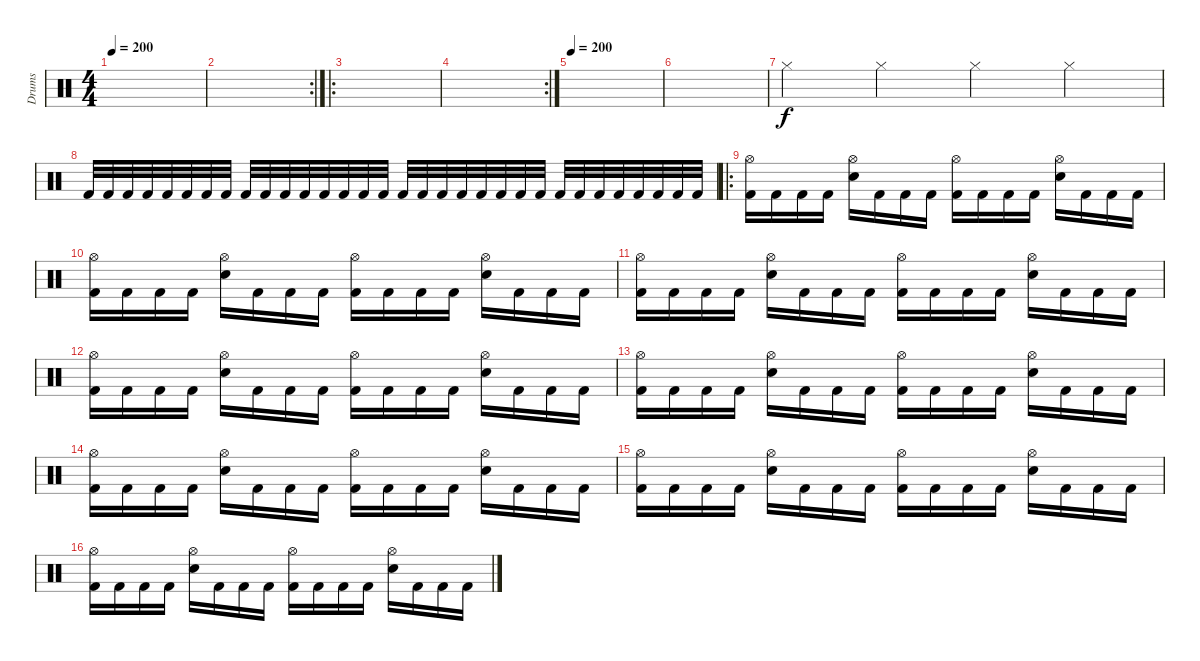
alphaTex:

\track ("Drums" "Drums") {instrument percussion}
\staff {score}
\articulation defaults
\ts (4 4)
\tempo 200
\tempo 190
\tempo 200
\clef neutral
\ks c
|
\rc 2
|
\ro
|
\rc 2
|
\tempo 200
|
|
"Hi-Hat (closed)".4 "Hi-Hat (closed)".4 "Hi-Hat (closed)".4 "Hi-Hat (closed)".4 |
"Kick (hit) 2".32 "Kick (hit) 2".32 "Kick (hit) 2".32 "Kick (hit) 2".32 "Kick (hit) 2".32 "Kick (hit) 2".32 "Kick (hit) 2".32 "Kick (hit) 2".32 "Kick (hit) 2".32 "Kick (hit) 2".32 "Kick (hit) 2".32 "Kick (hit) 2".32 "Kick (hit) 2".32 "Kick (hit) 2".32 "Kick (hit) 2".32 "Kick (hit) 2".32 "Kick (hit) 2".32 "Kick (hit) 2".32 "Kick (hit) 2".32 "Kick (hit) 2".32 "Kick (hit) 2".32 "Kick (hit) 2".32 "Kick (hit) 2".32 "Kick (hit) 2".32 "Kick (hit) 2".32 "Kick (hit) 2".32 "Kick (hit) 2".32 "Kick (hit) 2".32 "Kick (hit) 2".32 "Kick (hit) 2".32 "Kick (hit) 2".32 "Kick (hit) 2".32 |
\ro
("Hi-Hat (open)" "Kick (hit) 2").16 "Kick (hit) 2".16 "Kick (hit) 2".16 "Kick (hit) 2".16 ("Hi-Hat (open)" "Snare (hit) 2").16 "Kick (hit) 2".16 "Kick (hit) 2".16 "Kick (hit) 2".16 ("Hi-Hat (open)" "Kick (hit) 2").16 "Kick (hit) 2".16 "Kick (hit) 2".16 "Kick (hit) 2".16 ("Hi-Hat (open)" "Snare (hit) 2").16 "Kick (hit) 2".16 "Kick (hit) 2".16 "Kick (hit) 2".16 |
("Hi-Hat (open)" "Kick (hit) 2").16 "Kick (hit) 2".16 "Kick (hit) 2".16 "Kick (hit) 2".16 ("Hi-Hat (open)" "Snare (hit) 2").16 "Kick (hit) 2".16 "Kick (hit) 2".16 "Kick (hit) 2".16 ("Hi-Hat (open)" "Kick (hit) 2").16 "Kick (hit) 2".16 "Kick (hit) 2".16 "Kick (hit) 2".16 ("Hi-Hat (open)" "Snare (hit) 2").16 "Kick (hit) 2".16 "Kick (hit) 2".16 "Kick (hit) 2".16 |
("Hi-Hat (open)" "Kick (hit) 2").16 "Kick (hit) 2".16 "Kick (hit) 2".16 "Kick (hit) 2".16 ("Hi-Hat (open)" "Snare (hit) 2").16 "Kick (hit) 2".16 "Kick (hit) 2".16 "Kick (hit) 2".16 ("Hi-Hat (open)" "Kick (hit) 2").16 "Kick (hit) 2".16 "Kick (hit) 2".16 "Kick (hit) 2".16 ("Hi-Hat (open)" "Snare (hit) 2").16 "Kick (hit) 2".16 "Kick (hit) 2".16 "Kick (hit) 2".16 |
("Hi-Hat (open)" "Kick (hit) 2").16 "Kick (hit) 2".16 "Kick (hit) 2".16 "Kick (hit) 2".16 ("Hi-Hat (open)" "Snare (hit) 2").16 "Kick (hit) 2".16 "Kick (hit) 2".16 "Kick (hit) 2".16 ("Hi-Hat (open)" "Kick (hit) 2").16 "Kick (hit) 2".16 "Kick (hit) 2".16 "Kick (hit) 2".16 ("Hi-Hat (open)" "Snare (hit) 2").16 "Kick (hit) 2".16 "Kick (hit) 2".16 "Kick (hit) 2".16 |
("Hi-Hat (open)" "Kick (hit) 2").16 "Kick (hit) 2".16 "Kick (hit) 2".16 "Kick (hit) 2".16 ("Hi-Hat (open)" "Snare (hit) 2").16 "Kick (hit) 2".16 "Kick (hit) 2".16 "Kick (hit) 2".16 ("Hi-Hat (open)" "Kick (hit) 2").16 "Kick (hit) 2".16 "Kick (hit) 2".16 "Kick (hit) 2".16 ("Hi-Hat (open)" "Snare (hit) 2").16 "Kick (hit) 2".16 "Kick (hit) 2".16 "Kick (hit) 2".16 |
("Hi-Hat (open)" "Kick (hit) 2").16 "Kick (hit) 2".16 "Kick (hit) 2".16 "Kick (hit) 2".16 ("Hi-Hat (open)" "Snare (hit) 2").16 "Kick (hit) 2".16 "Kick (hit) 2".16 "Kick (hit) 2".16 ("Hi-Hat (open)" "Kick (hit) 2").16 "Kick (hit) 2".16 "Kick (hit) 2".16 "Kick (hit) 2".16 ("Hi-Hat (open)" "Snare (hit) 2").16 "Kick (hit) 2".16 "Kick (hit) 2".16 "Kick (hit) 2".16 |
("Hi-Hat (open)" "Kick (hit) 2").16 "Kick (hit) 2".16 "Kick (hit) 2".16 "Kick (hit) 2".16 ("Hi-Hat (open)" "Snare (hit) 2").16 "Kick (hit) 2".16 "Kick (hit) 2".16 "Kick (hit) 2".16 ("Hi-Hat (open)" "Kick (hit) 2").16 "Kick (hit) 2".16 "Kick (hit) 2".16 "Kick (hit) 2".16 ("Hi-Hat (open)" "Snare (hit) 2").16 "Kick (hit) 2".16 "Kick (hit) 2".16 "Kick (hit) 2".16 |
("Hi-Hat (open)" "Kick (hit) 2").16 "Kick (hit) 2".16 "Kick (hit) 2".16 "Kick (hit) 2".16 ("Hi-Hat (open)" "Snare (hit) 2").16 "Kick (hit) 2".16 "Kick (hit) 2".16 "Kick (hit) 2".16 ("Hi-Hat (open)" "Kick (hit) 2").16 "Kick (hit) 2".16 "Kick (hit) 2".16 "Kick (hit) 2".16 ("Hi-Hat (open)" "Snare (hit) 2").16 "Kick (hit) 2".16 "Kick (hit) 2".16 "Kick (hit) 2".16
